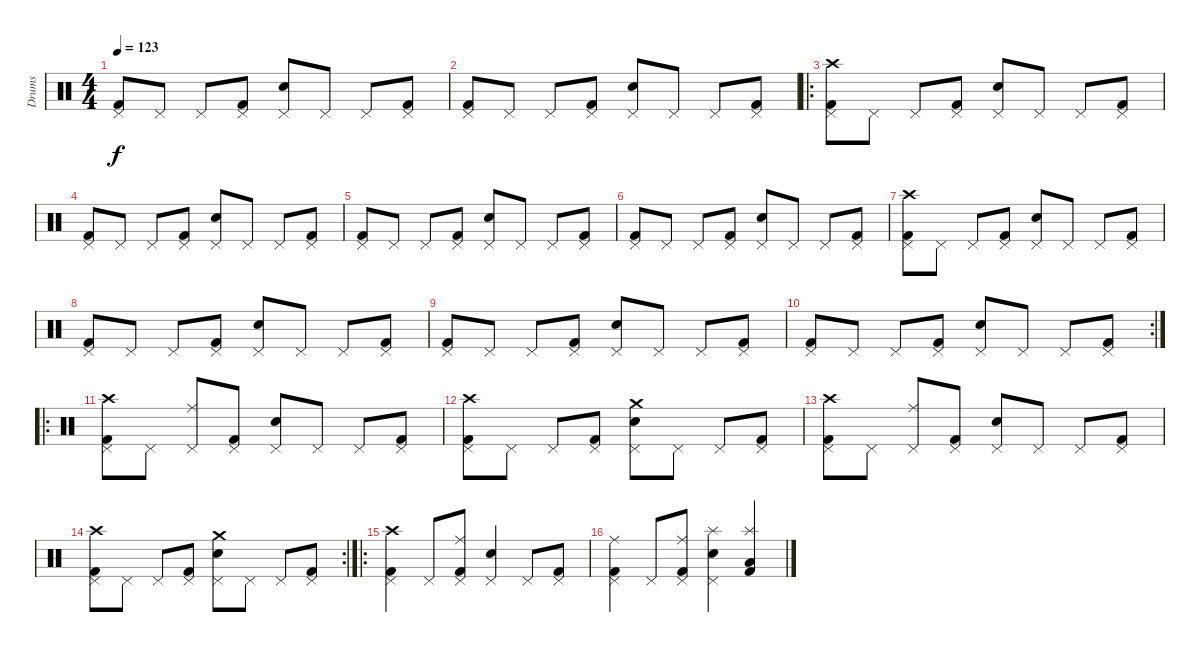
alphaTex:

\track ("Drums" "Drums") {instrument percussion}
\staff {score}
\articulation defaults
\ts (4 4)
\tempo 123
\clef neutral
\ks c
("Kick (hit) 2" "Pedal Hi-Hat (hit)").8{dy f} "Pedal Hi-Hat (hit)".8 "Pedal Hi-Hat (hit)".8 ("Kick (hit) 2" "Pedal Hi-Hat (hit)").8 ("Snare (hit) 2" "Pedal Hi-Hat (hit)").8 "Pedal Hi-Hat (hit)".8 "Pedal Hi-Hat (hit)".8 ("Kick (hit) 2" "Pedal Hi-Hat (hit)").8 |
("Kick (hit) 2" "Pedal Hi-Hat (hit)").8 "Pedal Hi-Hat (hit)".8 "Pedal Hi-Hat (hit)".8 ("Kick (hit) 2" "Pedal Hi-Hat (hit)").8 ("Snare (hit) 2" "Pedal Hi-Hat (hit)").8 "Pedal Hi-Hat (hit)".8 "Pedal Hi-Hat (hit)".8 ("Kick (hit) 2" "Pedal Hi-Hat (hit)").8 |
\ro
("Kick (hit) 2" "Pedal Hi-Hat (hit)" "Crash high (hit)").8 "Pedal Hi-Hat (hit)".8 "Pedal Hi-Hat (hit)".8 ("Kick (hit) 2" "Pedal Hi-Hat (hit)").8 ("Snare (hit) 2" "Pedal Hi-Hat (hit)").8 "Pedal Hi-Hat (hit)".8 "Pedal Hi-Hat (hit)".8 ("Kick (hit) 2" "Pedal Hi-Hat (hit)").8 |
("Kick (hit) 2" "Pedal Hi-Hat (hit)").8 "Pedal Hi-Hat (hit)".8 "Pedal Hi-Hat (hit)".8 ("Kick (hit) 2" "Pedal Hi-Hat (hit)").8 ("Snare (hit) 2" "Pedal Hi-Hat (hit)").8 "Pedal Hi-Hat (hit)".8 "Pedal Hi-Hat (hit)".8 ("Kick (hit) 2" "Pedal Hi-Hat (hit)").8 |
("Kick (hit) 2" "Pedal Hi-Hat (hit)").8 "Pedal Hi-Hat (hit)".8 "Pedal Hi-Hat (hit)".8 ("Kick (hit) 2" "Pedal Hi-Hat (hit)").8 ("Snare (hit) 2" "Pedal Hi-Hat (hit)").8 "Pedal Hi-Hat (hit)".8 "Pedal Hi-Hat (hit)".8 ("Kick (hit) 2" "Pedal Hi-Hat (hit)").8 |
("Kick (hit) 2" "Pedal Hi-Hat (hit)").8 "Pedal Hi-Hat (hit)".8 "Pedal Hi-Hat (hit)".8 ("Kick (hit) 2" "Pedal Hi-Hat (hit)").8 ("Snare (hit) 2" "Pedal Hi-Hat (hit)").8 "Pedal Hi-Hat (hit)".8 "Pedal Hi-Hat (hit)".8 ("Kick (hit) 2" "Pedal Hi-Hat (hit)").8 |
("Kick (hit) 2" "Pedal Hi-Hat (hit)" "Crash high (hit)").8 "Pedal Hi-Hat (hit)".8 "Pedal Hi-Hat (hit)".8 ("Kick (hit) 2" "Pedal Hi-Hat (hit)").8 ("Snare (hit) 2" "Pedal Hi-Hat (hit)").8 "Pedal Hi-Hat (hit)".8 "Pedal Hi-Hat (hit)".8 ("Kick (hit) 2" "Pedal Hi-Hat (hit)").8 |
("Kick (hit) 2" "Pedal Hi-Hat (hit)").8 "Pedal Hi-Hat (hit)".8 "Pedal Hi-Hat (hit)".8 ("Kick (hit) 2" "Pedal Hi-Hat (hit)").8 ("Snare (hit) 2" "Pedal Hi-Hat (hit)").8 "Pedal Hi-Hat (hit)".8 "Pedal Hi-Hat (hit)".8 ("Kick (hit) 2" "Pedal Hi-Hat (hit)").8 |
("Kick (hit) 2" "Pedal Hi-Hat (hit)").8 "Pedal Hi-Hat (hit)".8 "Pedal Hi-Hat (hit)".8 ("Kick (hit) 2" "Pedal Hi-Hat (hit)").8 ("Snare (hit) 2" "Pedal Hi-Hat (hit)").8 "Pedal Hi-Hat (hit)".8 "Pedal Hi-Hat (hit)".8 ("Kick (hit) 2" "Pedal Hi-Hat (hit)").8 |
\rc 2
("Kick (hit) 2" "Pedal Hi-Hat (hit)").8 "Pedal Hi-Hat (hit)".8 "Pedal Hi-Hat (hit)".8 ("Kick (hit) 2" "Pedal Hi-Hat (hit)").8 ("Snare (hit) 2" "Pedal Hi-Hat (hit)").8 "Pedal Hi-Hat (hit)".8 "Pedal Hi-Hat (hit)".8 ("Kick (hit) 2" "Pedal Hi-Hat (hit)").8 |
\ro
("Kick (hit) 2" "Pedal Hi-Hat (hit)" "Crash high (hit)").8 "Pedal Hi-Hat (hit)".8 ("Pedal Hi-Hat (hit)" "Ride (middle)").8 ("Kick (hit) 2" "Pedal Hi-Hat (hit)").8 ("Snare (hit) 2" "Pedal Hi-Hat (hit)").8 "Pedal Hi-Hat (hit)".8 "Pedal Hi-Hat (hit)".8 ("Kick (hit) 2" "Pedal Hi-Hat (hit)").8 |
("Kick (hit) 2" "Pedal Hi-Hat (hit)" "Crash high (hit)").8 "Pedal Hi-Hat (hit)".8 "Pedal Hi-Hat (hit)".8 ("Kick (hit) 2" "Pedal Hi-Hat (hit)").8 ("Snare (hit) 2" "Pedal Hi-Hat (hit)" "Crash medium (hit)").8 "Pedal Hi-Hat (hit)".8 "Pedal Hi-Hat (hit)".8 ("Kick (hit) 2" "Pedal Hi-Hat (hit)").8 |
("Kick (hit) 2" "Pedal Hi-Hat (hit)" "Crash high (hit)").8 "Pedal Hi-Hat (hit)".8 ("Pedal Hi-Hat (hit)" "Ride (middle)").8 ("Kick (hit) 2" "Pedal Hi-Hat (hit)").8 ("Snare (hit) 2" "Pedal Hi-Hat (hit)").8 "Pedal Hi-Hat (hit)".8 "Pedal Hi-Hat (hit)".8 ("Kick (hit) 2" "Pedal Hi-Hat (hit)").8 |
\rc 2
("Kick (hit) 2" "Pedal Hi-Hat (hit)" "Crash high (hit)").8 "Pedal Hi-Hat (hit)".8 "Pedal Hi-Hat (hit)".8 ("Kick (hit) 2" "Pedal Hi-Hat (hit)").8 ("Snare (hit) 2" "Pedal Hi-Hat (hit)" "Crash medium (hit)").8 "Pedal Hi-Hat (hit)".8 "Pedal Hi-Hat (hit)".8 ("Kick (hit) 2" "Pedal Hi-Hat (hit)").8 |
\ro
("Kick (hit) 2" "Pedal Hi-Hat (hit)" "Crash high (hit)").4 "Pedal Hi-Hat (hit)".8 ("Kick (hit) 2" "Pedal Hi-Hat (hit)" "Ride (middle)").8 ("Snare (hit) 2" "Pedal Hi-Hat (hit)").4 "Pedal Hi-Hat (hit)".8 ("Kick (hit) 2" "Pedal Hi-Hat (hit)").8 |
("Kick (hit) 2" "Pedal Hi-Hat (hit)" "Ride (middle)").4 "Pedal Hi-Hat (hit)".8 ("Kick (hit) 2" "Pedal Hi-Hat (hit)" "Ride (middle)").8 ("Snare (hit) 2" "Pedal Hi-Hat (hit)" "Splash (hit)").4 ("Kick (hit) 2" "Low Tom (hit)" "Splash (hit)").4
